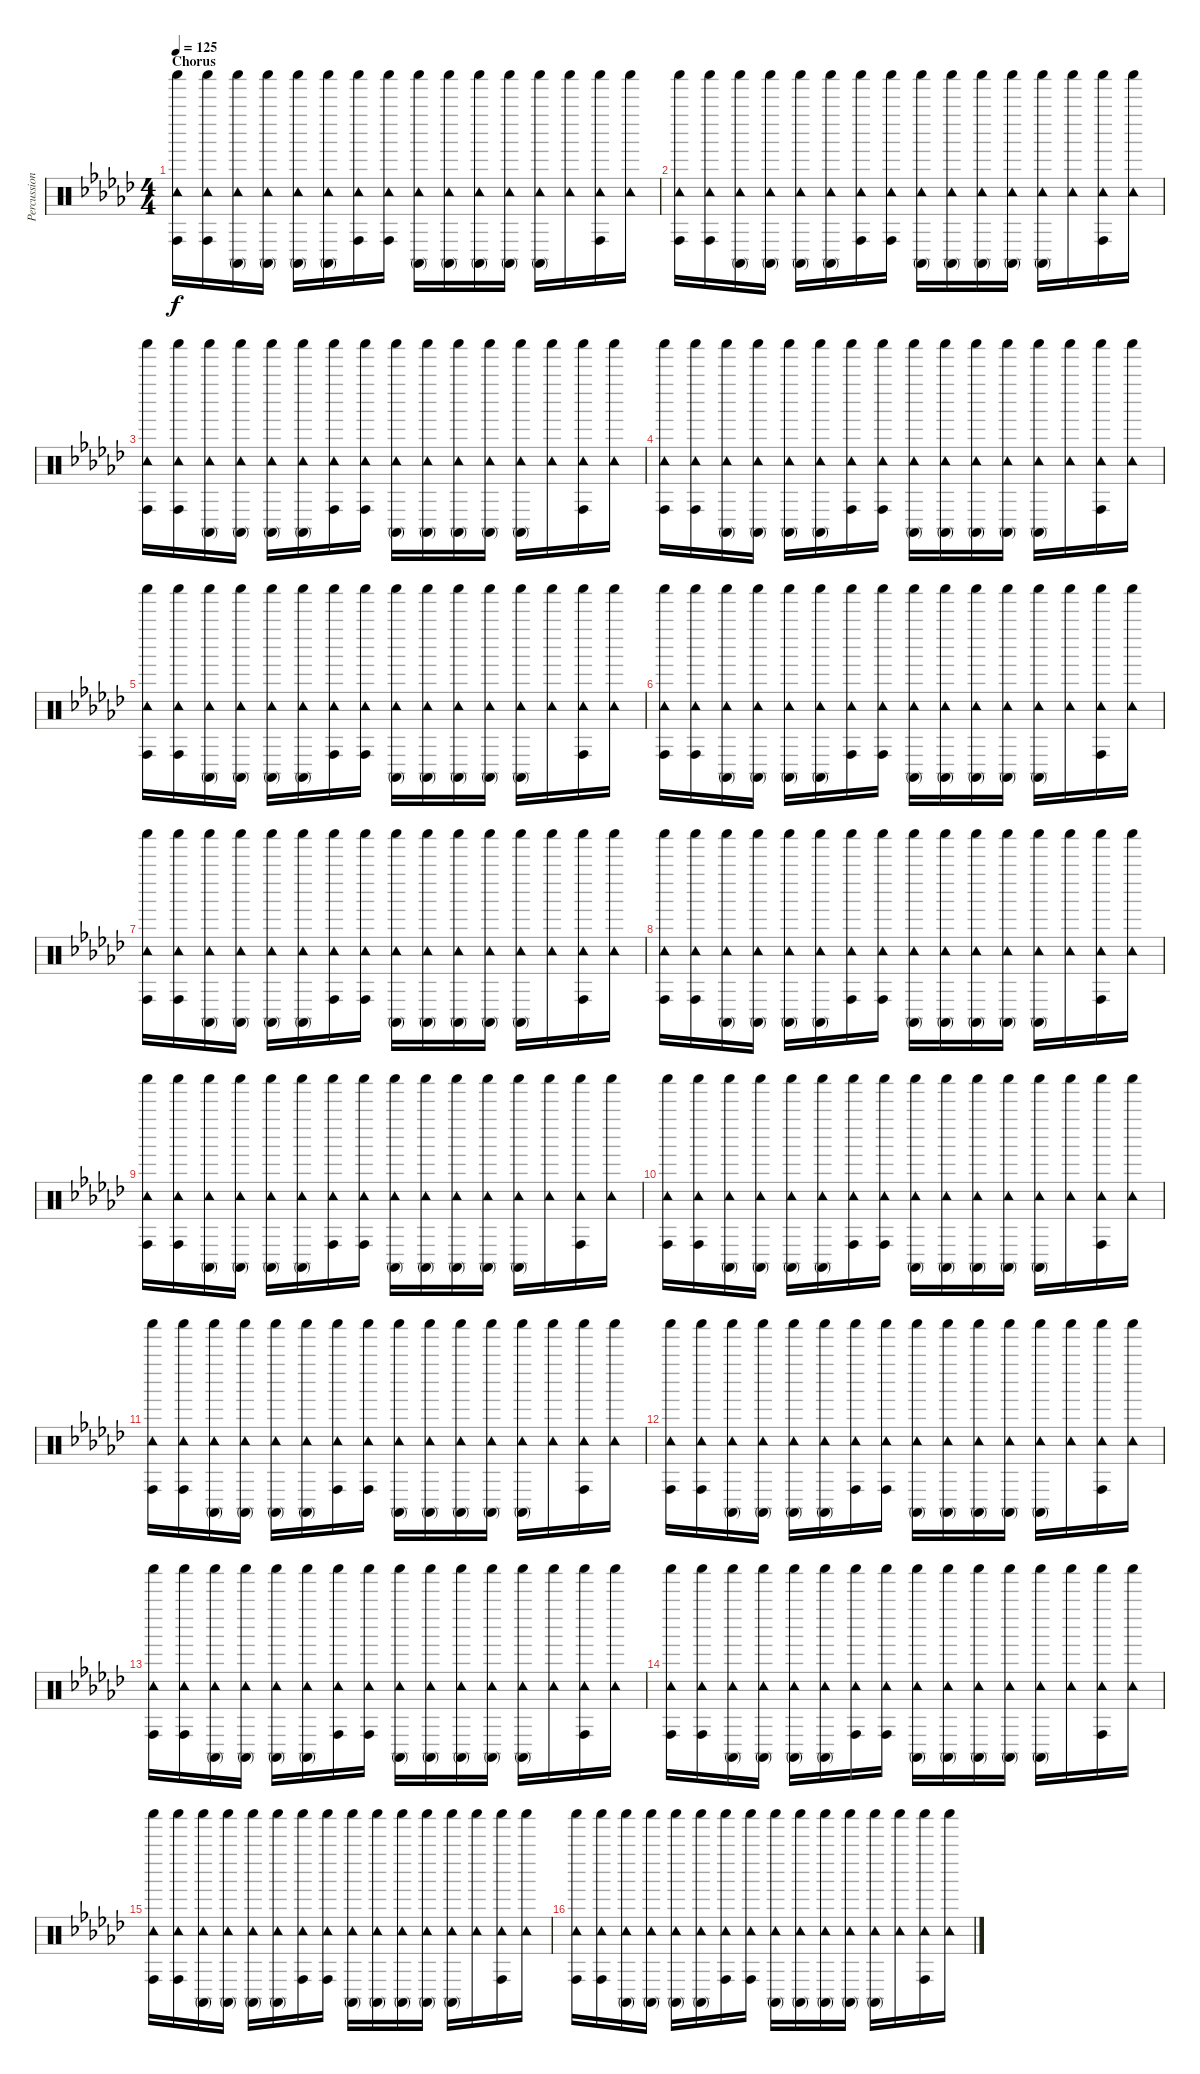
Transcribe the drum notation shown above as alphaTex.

\track ("Percussion" "Percussion") {instrument percussion}
\staff {score}
\articulation defaults
\ts (4 4)
\section ("" "Chorus")
\tempo 125
\clef neutral
\ks gb
("Shaker (hit)" "Tambourine (hit)" "Conga high (hit)").16{dy f} ("Shaker (hit)" "Tambourine (hit)" "Conga high (hit)").16 ("Shaker (hit)" "Tambourine (hit)" "Conga high (mute)").16 ("Shaker (hit)" "Tambourine (hit)" "Conga high (mute)").16 ("Shaker (hit)" "Tambourine (hit)" "Conga high (mute)").16 ("Shaker (hit)" "Tambourine (hit)" "Conga high (mute)").16 ("Shaker (hit)" "Tambourine (hit)" "Conga high (hit)").16 ("Shaker (hit)" "Tambourine (hit)" "Conga high (hit)").16 ("Shaker (hit)" "Tambourine (hit)" "Conga high (mute)").16 ("Shaker (hit)" "Tambourine (hit)" "Conga high (mute)").16 ("Shaker (hit)" "Tambourine (hit)" "Conga high (mute)").16 ("Shaker (hit)" "Tambourine (hit)" "Conga high (mute)").16 ("Shaker (hit)" "Tambourine (hit)" "Conga high (mute)").16 ("Shaker (hit)" "Tambourine (hit)").16 ("Shaker (hit)" "Tambourine (hit)" "Conga high (hit)").16 ("Shaker (hit)" "Tambourine (hit)").16 |
("Shaker (hit)" "Tambourine (hit)" "Conga high (hit)").16 ("Shaker (hit)" "Tambourine (hit)" "Conga high (hit)").16 ("Shaker (hit)" "Tambourine (hit)" "Conga high (mute)").16 ("Shaker (hit)" "Tambourine (hit)" "Conga high (mute)").16 ("Shaker (hit)" "Tambourine (hit)" "Conga high (mute)").16 ("Shaker (hit)" "Tambourine (hit)" "Conga high (mute)").16 ("Shaker (hit)" "Tambourine (hit)" "Conga high (hit)").16 ("Shaker (hit)" "Tambourine (hit)" "Conga high (hit)").16 ("Shaker (hit)" "Tambourine (hit)" "Conga high (mute)").16 ("Shaker (hit)" "Tambourine (hit)" "Conga high (mute)").16 ("Shaker (hit)" "Tambourine (hit)" "Conga high (mute)").16 ("Shaker (hit)" "Tambourine (hit)" "Conga high (mute)").16 ("Shaker (hit)" "Tambourine (hit)" "Conga high (mute)").16 ("Shaker (hit)" "Tambourine (hit)").16 ("Shaker (hit)" "Tambourine (hit)" "Conga high (hit)").16 ("Shaker (hit)" "Tambourine (hit)").16 |
("Shaker (hit)" "Tambourine (hit)" "Conga high (hit)").16 ("Shaker (hit)" "Tambourine (hit)" "Conga high (hit)").16 ("Shaker (hit)" "Tambourine (hit)" "Conga high (mute)").16 ("Shaker (hit)" "Tambourine (hit)" "Conga high (mute)").16 ("Shaker (hit)" "Tambourine (hit)" "Conga high (mute)").16 ("Shaker (hit)" "Tambourine (hit)" "Conga high (mute)").16 ("Shaker (hit)" "Tambourine (hit)" "Conga high (hit)").16 ("Shaker (hit)" "Tambourine (hit)" "Conga high (hit)").16 ("Shaker (hit)" "Tambourine (hit)" "Conga high (mute)").16 ("Shaker (hit)" "Tambourine (hit)" "Conga high (mute)").16 ("Shaker (hit)" "Tambourine (hit)" "Conga high (mute)").16 ("Shaker (hit)" "Tambourine (hit)" "Conga high (mute)").16 ("Shaker (hit)" "Tambourine (hit)" "Conga high (mute)").16 ("Shaker (hit)" "Tambourine (hit)").16 ("Shaker (hit)" "Tambourine (hit)" "Conga high (hit)").16 ("Shaker (hit)" "Tambourine (hit)").16 |
("Shaker (hit)" "Tambourine (hit)" "Conga high (hit)").16 ("Shaker (hit)" "Tambourine (hit)" "Conga high (hit)").16 ("Shaker (hit)" "Tambourine (hit)" "Conga high (mute)").16 ("Shaker (hit)" "Tambourine (hit)" "Conga high (mute)").16 ("Shaker (hit)" "Tambourine (hit)" "Conga high (mute)").16 ("Shaker (hit)" "Tambourine (hit)" "Conga high (mute)").16 ("Shaker (hit)" "Tambourine (hit)" "Conga high (hit)").16 ("Shaker (hit)" "Tambourine (hit)" "Conga high (hit)").16 ("Shaker (hit)" "Tambourine (hit)" "Conga high (mute)").16 ("Shaker (hit)" "Tambourine (hit)" "Conga high (mute)").16 ("Shaker (hit)" "Tambourine (hit)" "Conga high (mute)").16 ("Shaker (hit)" "Tambourine (hit)" "Conga high (mute)").16 ("Shaker (hit)" "Tambourine (hit)" "Conga high (mute)").16 ("Shaker (hit)" "Tambourine (hit)").16 ("Shaker (hit)" "Tambourine (hit)" "Conga high (hit)").16 ("Shaker (hit)" "Tambourine (hit)").16 |
("Shaker (hit)" "Tambourine (hit)" "Conga high (hit)").16 ("Shaker (hit)" "Tambourine (hit)" "Conga high (hit)").16 ("Shaker (hit)" "Tambourine (hit)" "Conga high (mute)").16 ("Shaker (hit)" "Tambourine (hit)" "Conga high (mute)").16 ("Shaker (hit)" "Tambourine (hit)" "Conga high (mute)").16 ("Shaker (hit)" "Tambourine (hit)" "Conga high (mute)").16 ("Shaker (hit)" "Tambourine (hit)" "Conga high (hit)").16 ("Shaker (hit)" "Tambourine (hit)" "Conga high (hit)").16 ("Shaker (hit)" "Tambourine (hit)" "Conga high (mute)").16 ("Shaker (hit)" "Tambourine (hit)" "Conga high (mute)").16 ("Shaker (hit)" "Tambourine (hit)" "Conga high (mute)").16 ("Shaker (hit)" "Tambourine (hit)" "Conga high (mute)").16 ("Shaker (hit)" "Tambourine (hit)" "Conga high (mute)").16 ("Shaker (hit)" "Tambourine (hit)").16 ("Shaker (hit)" "Tambourine (hit)" "Conga high (hit)").16 ("Shaker (hit)" "Tambourine (hit)").16 |
("Shaker (hit)" "Tambourine (hit)" "Conga high (hit)").16 ("Shaker (hit)" "Tambourine (hit)" "Conga high (hit)").16 ("Shaker (hit)" "Tambourine (hit)" "Conga high (mute)").16 ("Shaker (hit)" "Tambourine (hit)" "Conga high (mute)").16 ("Shaker (hit)" "Tambourine (hit)" "Conga high (mute)").16 ("Shaker (hit)" "Tambourine (hit)" "Conga high (mute)").16 ("Shaker (hit)" "Tambourine (hit)" "Conga high (hit)").16 ("Shaker (hit)" "Tambourine (hit)" "Conga high (hit)").16 ("Shaker (hit)" "Tambourine (hit)" "Conga high (mute)").16 ("Shaker (hit)" "Tambourine (hit)" "Conga high (mute)").16 ("Shaker (hit)" "Tambourine (hit)" "Conga high (mute)").16 ("Shaker (hit)" "Tambourine (hit)" "Conga high (mute)").16 ("Shaker (hit)" "Tambourine (hit)" "Conga high (mute)").16 ("Shaker (hit)" "Tambourine (hit)").16 ("Shaker (hit)" "Tambourine (hit)" "Conga high (hit)").16 ("Shaker (hit)" "Tambourine (hit)").16 |
("Shaker (hit)" "Tambourine (hit)" "Conga high (hit)").16 ("Shaker (hit)" "Tambourine (hit)" "Conga high (hit)").16 ("Shaker (hit)" "Tambourine (hit)" "Conga high (mute)").16 ("Shaker (hit)" "Tambourine (hit)" "Conga high (mute)").16 ("Shaker (hit)" "Tambourine (hit)" "Conga high (mute)").16 ("Shaker (hit)" "Tambourine (hit)" "Conga high (mute)").16 ("Shaker (hit)" "Tambourine (hit)" "Conga high (hit)").16 ("Shaker (hit)" "Tambourine (hit)" "Conga high (hit)").16 ("Shaker (hit)" "Tambourine (hit)" "Conga high (mute)").16 ("Shaker (hit)" "Tambourine (hit)" "Conga high (mute)").16 ("Shaker (hit)" "Tambourine (hit)" "Conga high (mute)").16 ("Shaker (hit)" "Tambourine (hit)" "Conga high (mute)").16 ("Shaker (hit)" "Tambourine (hit)" "Conga high (mute)").16 ("Shaker (hit)" "Tambourine (hit)").16 ("Shaker (hit)" "Tambourine (hit)" "Conga high (hit)").16 ("Shaker (hit)" "Tambourine (hit)").16 |
("Shaker (hit)" "Tambourine (hit)" "Conga high (hit)").16 ("Shaker (hit)" "Tambourine (hit)" "Conga high (hit)").16 ("Shaker (hit)" "Tambourine (hit)" "Conga high (mute)").16 ("Shaker (hit)" "Tambourine (hit)" "Conga high (mute)").16 ("Shaker (hit)" "Tambourine (hit)" "Conga high (mute)").16 ("Shaker (hit)" "Tambourine (hit)" "Conga high (mute)").16 ("Shaker (hit)" "Tambourine (hit)" "Conga high (hit)").16 ("Shaker (hit)" "Tambourine (hit)" "Conga high (hit)").16 ("Shaker (hit)" "Tambourine (hit)" "Conga high (mute)").16 ("Shaker (hit)" "Tambourine (hit)" "Conga high (mute)").16 ("Shaker (hit)" "Tambourine (hit)" "Conga high (mute)").16 ("Shaker (hit)" "Tambourine (hit)" "Conga high (mute)").16 ("Shaker (hit)" "Tambourine (hit)" "Conga high (mute)").16 ("Shaker (hit)" "Tambourine (hit)").16 ("Shaker (hit)" "Tambourine (hit)" "Conga high (hit)").16 ("Shaker (hit)" "Tambourine (hit)").16 |
("Shaker (hit)" "Tambourine (hit)" "Conga high (hit)").16 ("Shaker (hit)" "Tambourine (hit)" "Conga high (hit)").16 ("Shaker (hit)" "Tambourine (hit)" "Conga high (mute)").16 ("Shaker (hit)" "Tambourine (hit)" "Conga high (mute)").16 ("Shaker (hit)" "Tambourine (hit)" "Conga high (mute)").16 ("Shaker (hit)" "Tambourine (hit)" "Conga high (mute)").16 ("Shaker (hit)" "Tambourine (hit)" "Conga high (hit)").16 ("Shaker (hit)" "Tambourine (hit)" "Conga high (hit)").16 ("Shaker (hit)" "Tambourine (hit)" "Conga high (mute)").16 ("Shaker (hit)" "Tambourine (hit)" "Conga high (mute)").16 ("Shaker (hit)" "Tambourine (hit)" "Conga high (mute)").16 ("Shaker (hit)" "Tambourine (hit)" "Conga high (mute)").16 ("Shaker (hit)" "Tambourine (hit)" "Conga high (mute)").16 ("Shaker (hit)" "Tambourine (hit)").16 ("Shaker (hit)" "Tambourine (hit)" "Conga high (hit)").16 ("Shaker (hit)" "Tambourine (hit)").16 |
("Shaker (hit)" "Tambourine (hit)" "Conga high (hit)").16 ("Shaker (hit)" "Tambourine (hit)" "Conga high (hit)").16 ("Shaker (hit)" "Tambourine (hit)" "Conga high (mute)").16 ("Shaker (hit)" "Tambourine (hit)" "Conga high (mute)").16 ("Shaker (hit)" "Tambourine (hit)" "Conga high (mute)").16 ("Shaker (hit)" "Tambourine (hit)" "Conga high (mute)").16 ("Shaker (hit)" "Tambourine (hit)" "Conga high (hit)").16 ("Shaker (hit)" "Tambourine (hit)" "Conga high (hit)").16 ("Shaker (hit)" "Tambourine (hit)" "Conga high (mute)").16 ("Shaker (hit)" "Tambourine (hit)" "Conga high (mute)").16 ("Shaker (hit)" "Tambourine (hit)" "Conga high (mute)").16 ("Shaker (hit)" "Tambourine (hit)" "Conga high (mute)").16 ("Shaker (hit)" "Tambourine (hit)" "Conga high (mute)").16 ("Shaker (hit)" "Tambourine (hit)").16 ("Shaker (hit)" "Tambourine (hit)" "Conga high (hit)").16 ("Shaker (hit)" "Tambourine (hit)").16 |
("Shaker (hit)" "Tambourine (hit)" "Conga high (hit)").16 ("Shaker (hit)" "Tambourine (hit)" "Conga high (hit)").16 ("Shaker (hit)" "Tambourine (hit)" "Conga high (mute)").16 ("Shaker (hit)" "Tambourine (hit)" "Conga high (mute)").16 ("Shaker (hit)" "Tambourine (hit)" "Conga high (mute)").16 ("Shaker (hit)" "Tambourine (hit)" "Conga high (mute)").16 ("Shaker (hit)" "Tambourine (hit)" "Conga high (hit)").16 ("Shaker (hit)" "Tambourine (hit)" "Conga high (hit)").16 ("Shaker (hit)" "Tambourine (hit)" "Conga high (mute)").16 ("Shaker (hit)" "Tambourine (hit)" "Conga high (mute)").16 ("Shaker (hit)" "Tambourine (hit)" "Conga high (mute)").16 ("Shaker (hit)" "Tambourine (hit)" "Conga high (mute)").16 ("Shaker (hit)" "Tambourine (hit)" "Conga high (mute)").16 ("Shaker (hit)" "Tambourine (hit)").16 ("Shaker (hit)" "Tambourine (hit)" "Conga high (hit)").16 ("Shaker (hit)" "Tambourine (hit)").16 |
("Shaker (hit)" "Tambourine (hit)" "Conga high (hit)").16 ("Shaker (hit)" "Tambourine (hit)" "Conga high (hit)").16 ("Shaker (hit)" "Tambourine (hit)" "Conga high (mute)").16 ("Shaker (hit)" "Tambourine (hit)" "Conga high (mute)").16 ("Shaker (hit)" "Tambourine (hit)" "Conga high (mute)").16 ("Shaker (hit)" "Tambourine (hit)" "Conga high (mute)").16 ("Shaker (hit)" "Tambourine (hit)" "Conga high (hit)").16 ("Shaker (hit)" "Tambourine (hit)" "Conga high (hit)").16 ("Shaker (hit)" "Tambourine (hit)" "Conga high (mute)").16 ("Shaker (hit)" "Tambourine (hit)" "Conga high (mute)").16 ("Shaker (hit)" "Tambourine (hit)" "Conga high (mute)").16 ("Shaker (hit)" "Tambourine (hit)" "Conga high (mute)").16 ("Shaker (hit)" "Tambourine (hit)" "Conga high (mute)").16 ("Shaker (hit)" "Tambourine (hit)").16 ("Shaker (hit)" "Tambourine (hit)" "Conga high (hit)").16 ("Shaker (hit)" "Tambourine (hit)").16 |
("Shaker (hit)" "Tambourine (hit)" "Conga high (hit)").16 ("Shaker (hit)" "Tambourine (hit)" "Conga high (hit)").16 ("Shaker (hit)" "Tambourine (hit)" "Conga high (mute)").16 ("Shaker (hit)" "Tambourine (hit)" "Conga high (mute)").16 ("Shaker (hit)" "Tambourine (hit)" "Conga high (mute)").16 ("Shaker (hit)" "Tambourine (hit)" "Conga high (mute)").16 ("Shaker (hit)" "Tambourine (hit)" "Conga high (hit)").16 ("Shaker (hit)" "Tambourine (hit)" "Conga high (hit)").16 ("Shaker (hit)" "Tambourine (hit)" "Conga high (mute)").16 ("Shaker (hit)" "Tambourine (hit)" "Conga high (mute)").16 ("Shaker (hit)" "Tambourine (hit)" "Conga high (mute)").16 ("Shaker (hit)" "Tambourine (hit)" "Conga high (mute)").16 ("Shaker (hit)" "Tambourine (hit)" "Conga high (mute)").16 ("Shaker (hit)" "Tambourine (hit)").16 ("Shaker (hit)" "Tambourine (hit)" "Conga high (hit)").16 ("Shaker (hit)" "Tambourine (hit)").16 |
("Shaker (hit)" "Tambourine (hit)" "Conga high (hit)").16 ("Shaker (hit)" "Tambourine (hit)" "Conga high (hit)").16 ("Shaker (hit)" "Tambourine (hit)" "Conga high (mute)").16 ("Shaker (hit)" "Tambourine (hit)" "Conga high (mute)").16 ("Shaker (hit)" "Tambourine (hit)" "Conga high (mute)").16 ("Shaker (hit)" "Tambourine (hit)" "Conga high (mute)").16 ("Shaker (hit)" "Tambourine (hit)" "Conga high (hit)").16 ("Shaker (hit)" "Tambourine (hit)" "Conga high (hit)").16 ("Shaker (hit)" "Tambourine (hit)" "Conga high (mute)").16 ("Shaker (hit)" "Tambourine (hit)" "Conga high (mute)").16 ("Shaker (hit)" "Tambourine (hit)" "Conga high (mute)").16 ("Shaker (hit)" "Tambourine (hit)" "Conga high (mute)").16 ("Shaker (hit)" "Tambourine (hit)" "Conga high (mute)").16 ("Shaker (hit)" "Tambourine (hit)").16 ("Shaker (hit)" "Tambourine (hit)" "Conga high (hit)").16 ("Shaker (hit)" "Tambourine (hit)").16 |
("Shaker (hit)" "Tambourine (hit)" "Conga high (hit)").16 ("Shaker (hit)" "Tambourine (hit)" "Conga high (hit)").16 ("Shaker (hit)" "Tambourine (hit)" "Conga high (mute)").16 ("Shaker (hit)" "Tambourine (hit)" "Conga high (mute)").16 ("Shaker (hit)" "Tambourine (hit)" "Conga high (mute)").16 ("Shaker (hit)" "Tambourine (hit)" "Conga high (mute)").16 ("Shaker (hit)" "Tambourine (hit)" "Conga high (hit)").16 ("Shaker (hit)" "Tambourine (hit)" "Conga high (hit)").16 ("Shaker (hit)" "Tambourine (hit)" "Conga high (mute)").16 ("Shaker (hit)" "Tambourine (hit)" "Conga high (mute)").16 ("Shaker (hit)" "Tambourine (hit)" "Conga high (mute)").16 ("Shaker (hit)" "Tambourine (hit)" "Conga high (mute)").16 ("Shaker (hit)" "Tambourine (hit)" "Conga high (mute)").16 ("Shaker (hit)" "Tambourine (hit)").16 ("Shaker (hit)" "Tambourine (hit)" "Conga high (hit)").16 ("Shaker (hit)" "Tambourine (hit)").16 |
("Shaker (hit)" "Tambourine (hit)" "Conga high (hit)").16 ("Shaker (hit)" "Tambourine (hit)" "Conga high (hit)").16 ("Shaker (hit)" "Tambourine (hit)" "Conga high (mute)").16 ("Shaker (hit)" "Tambourine (hit)" "Conga high (mute)").16 ("Shaker (hit)" "Tambourine (hit)" "Conga high (mute)").16 ("Shaker (hit)" "Tambourine (hit)" "Conga high (mute)").16 ("Shaker (hit)" "Tambourine (hit)" "Conga high (hit)").16 ("Shaker (hit)" "Tambourine (hit)" "Conga high (hit)").16 ("Shaker (hit)" "Tambourine (hit)" "Conga high (mute)").16 ("Shaker (hit)" "Tambourine (hit)" "Conga high (mute)").16 ("Shaker (hit)" "Tambourine (hit)" "Conga high (mute)").16 ("Shaker (hit)" "Tambourine (hit)" "Conga high (mute)").16 ("Shaker (hit)" "Tambourine (hit)" "Conga high (mute)").16 ("Shaker (hit)" "Tambourine (hit)").16 ("Shaker (hit)" "Tambourine (hit)" "Conga high (hit)").16 ("Shaker (hit)" "Tambourine (hit)").16
